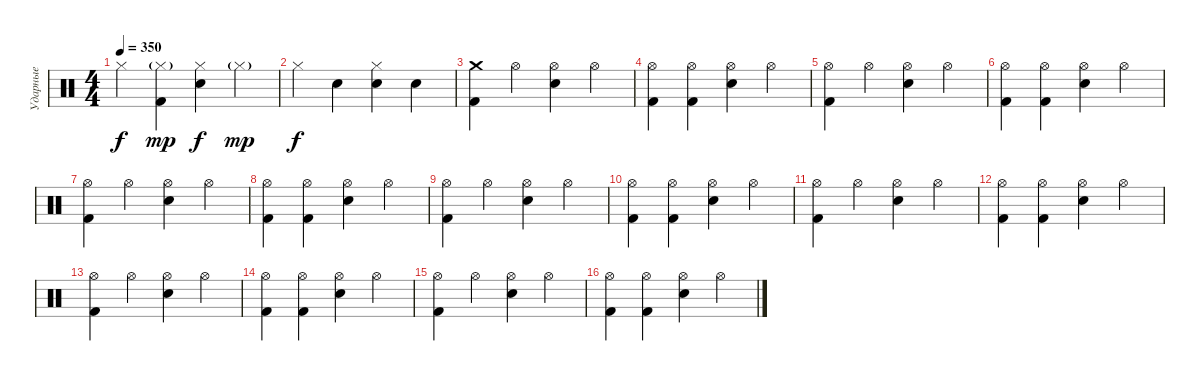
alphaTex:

\track ("Ударные" "Ударные") {instrument percussion}
\staff {score}
\articulation defaults
\ts (4 4)
\tempo 350
\clef neutral
\ks c "Hi-Hat (closed)".4{dy f}
("Hi-Hat (closed)"{g} "Kick (hit) 2").4{dy mp} ("Hi-Hat (closed)" "Electric Snare (hit)").4{dy f} "Hi-Hat (closed)"{g}.4{dy mp} |
"Hi-Hat (closed)".4{dy f} "Electric Snare (hit)".4 ("Hi-Hat (closed)" "Electric Snare (hit)").4 "Electric Snare (hit)".4 |
("Crash medium (hit)" "Kick (hit) 2").4 "Hi-Hat (open)".4 ("Hi-Hat (open)" "Electric Snare (hit)").4 "Hi-Hat (open)".4 |
("Hi-Hat (open)" "Kick (hit) 2").4 ("Hi-Hat (open)" "Kick (hit) 2").4 ("Hi-Hat (open)" "Electric Snare (hit)").4 "Hi-Hat (open)".4 |
("Hi-Hat (open)" "Kick (hit) 2").4 "Hi-Hat (open)".4 ("Hi-Hat (open)" "Electric Snare (hit)").4 "Hi-Hat (open)".4 |
("Hi-Hat (open)" "Kick (hit) 2").4 ("Hi-Hat (open)" "Kick (hit) 2").4 ("Hi-Hat (open)" "Electric Snare (hit)").4 "Hi-Hat (open)".4 |
("Hi-Hat (open)" "Kick (hit) 2").4 "Hi-Hat (open)".4 ("Hi-Hat (open)" "Electric Snare (hit)").4 "Hi-Hat (open)".4 |
("Hi-Hat (open)" "Kick (hit) 2").4 ("Hi-Hat (open)" "Kick (hit) 2").4 ("Hi-Hat (open)" "Electric Snare (hit)").4 "Hi-Hat (open)".4 |
("Hi-Hat (open)" "Kick (hit) 2").4 "Hi-Hat (open)".4 ("Hi-Hat (open)" "Electric Snare (hit)").4 "Hi-Hat (open)".4 |
("Hi-Hat (open)" "Kick (hit) 2").4 ("Hi-Hat (open)" "Kick (hit) 2").4 ("Hi-Hat (open)" "Electric Snare (hit)").4 "Hi-Hat (open)".4 |
("Hi-Hat (open)" "Kick (hit) 2").4 "Hi-Hat (open)".4 ("Hi-Hat (open)" "Electric Snare (hit)").4 "Hi-Hat (open)".4 |
("Hi-Hat (open)" "Kick (hit) 2").4 ("Hi-Hat (open)" "Kick (hit) 2").4 ("Hi-Hat (open)" "Electric Snare (hit)").4 "Hi-Hat (open)".4 |
("Hi-Hat (open)" "Kick (hit) 2").4 "Hi-Hat (open)".4 ("Hi-Hat (open)" "Electric Snare (hit)").4 "Hi-Hat (open)".4 |
("Hi-Hat (open)" "Kick (hit) 2").4 ("Hi-Hat (open)" "Kick (hit) 2").4 ("Hi-Hat (open)" "Electric Snare (hit)").4 "Hi-Hat (open)".4 |
("Hi-Hat (open)" "Kick (hit) 2").4 "Hi-Hat (open)".4 ("Hi-Hat (open)" "Electric Snare (hit)").4 "Hi-Hat (open)".4 |
("Hi-Hat (open)" "Kick (hit) 2").4 ("Hi-Hat (open)" "Kick (hit) 2").4 ("Hi-Hat (open)" "Electric Snare (hit)").4 "Hi-Hat (open)".4
